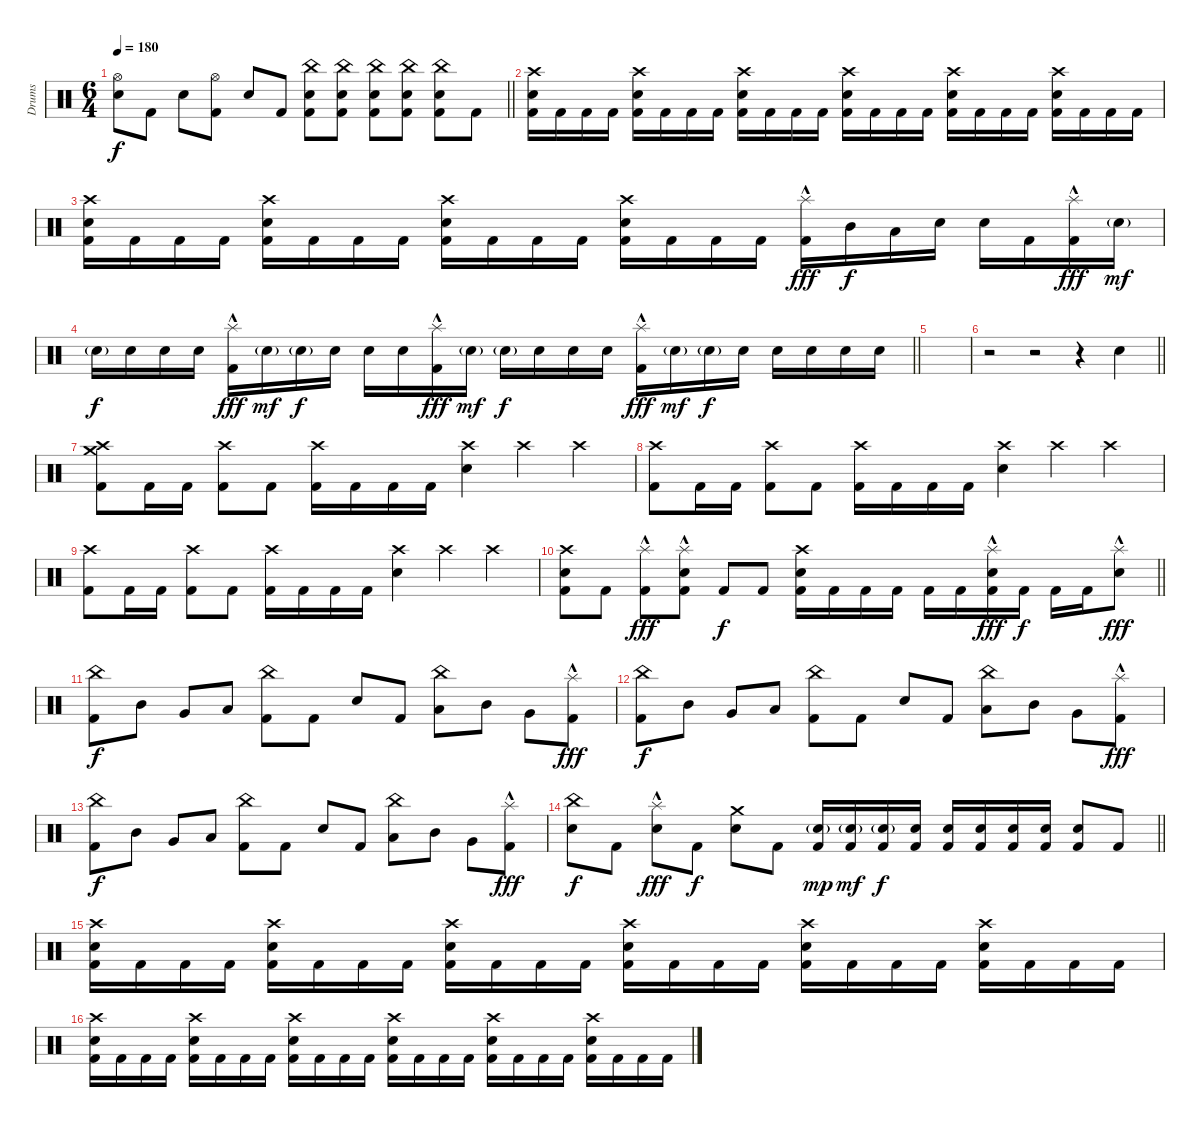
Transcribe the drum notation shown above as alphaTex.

\track ("Drums" "Drums") {instrument percussion}
\staff {score}
\articulation defaults
\ts (6 4)
\tempo 180
\clef neutral
\barLineRight lightlight
\ks c
("Hi-Hat (open)" "Electric Snare (hit)").8{dy f} "Kick (hit) 2".8 "Electric Snare (hit)".8 ("Hi-Hat (open)" "Kick (hit) 2").8 "Electric Snare (hit)".8 "Kick (hit) 2".8 ("China (hit)" "Electric Snare (hit)" "Kick (hit) 2").8 ("China (hit)" "Electric Snare (hit)" "Kick (hit) 2").8 ("China (hit)" "Electric Snare (hit)" "Kick (hit) 2").8 ("China (hit)" "Electric Snare (hit)" "Kick (hit) 2").8 ("China (hit)" "Electric Snare (hit)" "Kick (hit) 2").8 "Kick (hit) 2".8 |
("Crash high (hit)" "Electric Snare (hit)" "Kick (hit) 2").16 "Kick (hit) 2".16 "Kick (hit) 2".16 "Kick (hit) 2".16 ("Crash high (hit)" "Electric Snare (hit)" "Kick (hit) 2").16 "Kick (hit) 2".16 "Kick (hit) 2".16 "Kick (hit) 2".16 ("Crash high (hit)" "Electric Snare (hit)" "Kick (hit) 2").16 "Kick (hit) 2".16 "Kick (hit) 2".16 "Kick (hit) 2".16 ("Crash high (hit)" "Electric Snare (hit)" "Kick (hit) 2").16 "Kick (hit) 2".16 "Kick (hit) 2".16 "Kick (hit) 2".16 ("Crash high (hit)" "Electric Snare (hit)" "Kick (hit) 2").16 "Kick (hit) 2".16 "Kick (hit) 2".16 "Kick (hit) 2".16 ("Crash high (hit)" "Electric Snare (hit)" "Kick (hit) 2").16 "Kick (hit) 2".16 "Kick (hit) 2".16 "Kick (hit) 2".16 |
("Crash high (hit)" "Electric Snare (hit)" "Kick (hit) 2").16 "Kick (hit) 2".16 "Kick (hit) 2".16 "Kick (hit) 2".16 ("Crash high (hit)" "Electric Snare (hit)" "Kick (hit) 2").16 "Kick (hit) 2".16 "Kick (hit) 2".16 "Kick (hit) 2".16 ("Crash high (hit)" "Electric Snare (hit)" "Kick (hit) 2").16 "Kick (hit) 2".16 "Kick (hit) 2".16 "Kick (hit) 2".16 ("Crash high (hit)" "Electric Snare (hit)" "Kick (hit) 2").16 "Kick (hit) 2".16 "Kick (hit) 2".16 "Kick (hit) 2".16 ("Splash (hit)"{hac} "Kick (hit) 2").16{dy fff} "Mid Tom (hit)".16{dy f} "Low Tom (hit)".16 "Electric Snare (hit)".16 "Electric Snare (hit)".16 "Kick (hit) 2".16 ("Splash (hit)"{hac} "Kick (hit) 2").16{dy fff} "Electric Snare (hit)"{g}.16{dy mf} |
\barLineRight lightlight "Electric Snare (hit)"{g}.16{dy f} "Electric Snare (hit)".16 "Electric Snare (hit)".16 "Electric Snare (hit)".16
("Splash (hit)"{hac} "Kick (hit) 2").16{dy fff} "Electric Snare (hit)"{g}.16{dy mf} "Electric Snare (hit)"{g}.16{dy f} "Electric Snare (hit)".16 "Electric Snare (hit)".16 "Electric Snare (hit)".16 ("Splash (hit)"{hac} "Kick (hit) 2").16{dy fff} "Electric Snare (hit)"{g}.16{dy mf} "Electric Snare (hit)"{g}.16{dy f} "Electric Snare (hit)".16 "Electric Snare (hit)".16 "Electric Snare (hit)".16 ("Splash (hit)"{hac} "Kick (hit) 2").16{dy fff} "Electric Snare (hit)"{g}.16{dy mf} "Electric Snare (hit)"{g}.16{dy f} "Electric Snare (hit)".16 "Electric Snare (hit)".16 "Electric Snare (hit)".16 "Electric Snare (hit)".16 "Electric Snare (hit)".16 |
|
\barLineRight lightlight
r.2 r.2 r.4 "Electric Snare (hit)".4 |
("Crash high (hit)" "Crash medium (hit)" "Kick (hit) 2").8 "Kick (hit) 2".16 "Kick (hit) 2".16 ("Crash high (hit)" "Kick (hit) 2").8 "Kick (hit) 2".8 ("Crash high (hit)" "Kick (hit) 2").16 "Kick (hit) 2".16 "Kick (hit) 2".16 "Kick (hit) 2".16 ("Crash high (hit)" "Electric Snare (hit)").4 "Crash high (hit)".4 "Crash high (hit)".4 |
("Crash high (hit)" "Kick (hit) 2").8 "Kick (hit) 2".16 "Kick (hit) 2".16 ("Crash high (hit)" "Kick (hit) 2").8 "Kick (hit) 2".8 ("Crash high (hit)" "Kick (hit) 2").16 "Kick (hit) 2".16 "Kick (hit) 2".16 "Kick (hit) 2".16 ("Crash high (hit)" "Electric Snare (hit)").4 "Crash high (hit)".4 "Crash high (hit)".4 |
("Crash high (hit)" "Kick (hit) 2").8 "Kick (hit) 2".16 "Kick (hit) 2".16 ("Crash high (hit)" "Kick (hit) 2").8 "Kick (hit) 2".8 ("Crash high (hit)" "Kick (hit) 2").16 "Kick (hit) 2".16 "Kick (hit) 2".16 "Kick (hit) 2".16 ("Crash high (hit)" "Electric Snare (hit)").4 "Crash high (hit)".4 "Crash high (hit)".4 |
\barLineRight lightlight
("Crash high (hit)" "Electric Snare (hit)" "Kick (hit) 2").8 "Kick (hit) 2".8 ("Splash (hit)"{hac} "Kick (hit) 2").8{dy fff} ("Splash (hit)"{hac} "Electric Snare (hit)" "Kick (hit) 2").8 "Kick (hit) 2".8{dy f} "Kick (hit) 2".8 ("Crash high (hit)" "Electric Snare (hit)" "Kick (hit) 2").16 "Kick (hit) 2".16 "Kick (hit) 2".16 "Kick (hit) 2".16 "Kick (hit) 2".16 "Kick (hit) 2".16 ("Splash (hit)"{hac} "Electric Snare (hit)" "Kick (hit) 2").16{dy fff} "Kick (hit) 2".16{dy f} "Kick (hit) 2".16 "Kick (hit) 2".16 ("Splash (hit)"{hac} "Electric Snare (hit)").8{dy fff} |
("China (hit)" "Kick (hit) 2").8{dy f} "Mid Tom (hit)".8 "Very Low Tom (hit)".8 "Low Tom (hit)".8 ("China (hit)" "Kick (hit) 2").8 "Kick (hit) 2".8 "Electric Snare (hit)".8 "Kick (hit) 2".8 ("China (hit)" "Low Tom (hit)").8 "Mid Tom (hit)".8 "Very Low Tom (hit)".8 ("Splash (hit)"{hac} "Kick (hit) 2").8{dy fff} |
("China (hit)" "Kick (hit) 2").8{dy f} "Mid Tom (hit)".8 "Very Low Tom (hit)".8 "Low Tom (hit)".8 ("China (hit)" "Kick (hit) 2").8 "Kick (hit) 2".8 "Electric Snare (hit)".8 "Kick (hit) 2".8 ("China (hit)" "Low Tom (hit)").8 "Mid Tom (hit)".8 "Very Low Tom (hit)".8 ("Splash (hit)"{hac} "Kick (hit) 2").8{dy fff} |
("China (hit)" "Kick (hit) 2").8{dy f} "Mid Tom (hit)".8 "Very Low Tom (hit)".8 "Low Tom (hit)".8 ("China (hit)" "Kick (hit) 2").8 "Kick (hit) 2".8 "Electric Snare (hit)".8 "Kick (hit) 2".8 ("China (hit)" "Low Tom (hit)").8 "Mid Tom (hit)".8 "Very Low Tom (hit)".8 ("Splash (hit)"{hac} "Kick (hit) 2").8{dy fff} |
\barLineRight lightlight
("China (hit)" "Electric Snare (hit)").8{dy f} "Kick (hit) 2".8 ("Splash (hit)"{hac} "Electric Snare (hit)").8{dy fff} "Kick (hit) 2".8{dy f} ("Crash medium (hit)" "Electric Snare (hit)").8 "Kick (hit) 2".8 ("Electric Snare (hit)"{g} "Kick (hit) 2").16{dy mp} ("Electric Snare (hit)"{g} "Kick (hit) 2").16{dy mf} ("Electric Snare (hit)"{g} "Kick (hit) 2").16{dy f} ("Electric Snare (hit)" "Kick (hit) 2").16 ("Electric Snare (hit)" "Kick (hit) 2").16 ("Electric Snare (hit)" "Kick (hit) 2").16 ("Electric Snare (hit)" "Kick (hit) 2").16 ("Electric Snare (hit)" "Kick (hit) 2").16 ("Electric Snare (hit)" "Kick (hit) 2").8 "Kick (hit) 2".8 |
("Crash high (hit)" "Electric Snare (hit)" "Kick (hit) 2").16 "Kick (hit) 2".16 "Kick (hit) 2".16 "Kick (hit) 2".16 ("Crash high (hit)" "Electric Snare (hit)" "Kick (hit) 2").16 "Kick (hit) 2".16 "Kick (hit) 2".16 "Kick (hit) 2".16 ("Crash high (hit)" "Electric Snare (hit)" "Kick (hit) 2").16 "Kick (hit) 2".16 "Kick (hit) 2".16 "Kick (hit) 2".16 ("Crash high (hit)" "Electric Snare (hit)" "Kick (hit) 2").16 "Kick (hit) 2".16 "Kick (hit) 2".16 "Kick (hit) 2".16 ("Crash high (hit)" "Electric Snare (hit)" "Kick (hit) 2").16 "Kick (hit) 2".16 "Kick (hit) 2".16 "Kick (hit) 2".16 ("Crash high (hit)" "Electric Snare (hit)" "Kick (hit) 2").16 "Kick (hit) 2".16 "Kick (hit) 2".16 "Kick (hit) 2".16 |
("Crash high (hit)" "Electric Snare (hit)" "Kick (hit) 2").16 "Kick (hit) 2".16 "Kick (hit) 2".16 "Kick (hit) 2".16 ("Crash high (hit)" "Electric Snare (hit)" "Kick (hit) 2").16 "Kick (hit) 2".16 "Kick (hit) 2".16 "Kick (hit) 2".16 ("Crash high (hit)" "Electric Snare (hit)" "Kick (hit) 2").16 "Kick (hit) 2".16 "Kick (hit) 2".16 "Kick (hit) 2".16 ("Crash high (hit)" "Electric Snare (hit)" "Kick (hit) 2").16 "Kick (hit) 2".16 "Kick (hit) 2".16 "Kick (hit) 2".16 ("Crash high (hit)" "Electric Snare (hit)" "Kick (hit) 2").16 "Kick (hit) 2".16 "Kick (hit) 2".16 "Kick (hit) 2".16 ("Crash high (hit)" "Electric Snare (hit)" "Kick (hit) 2").16 "Kick (hit) 2".16 "Kick (hit) 2".16 "Kick (hit) 2".16
